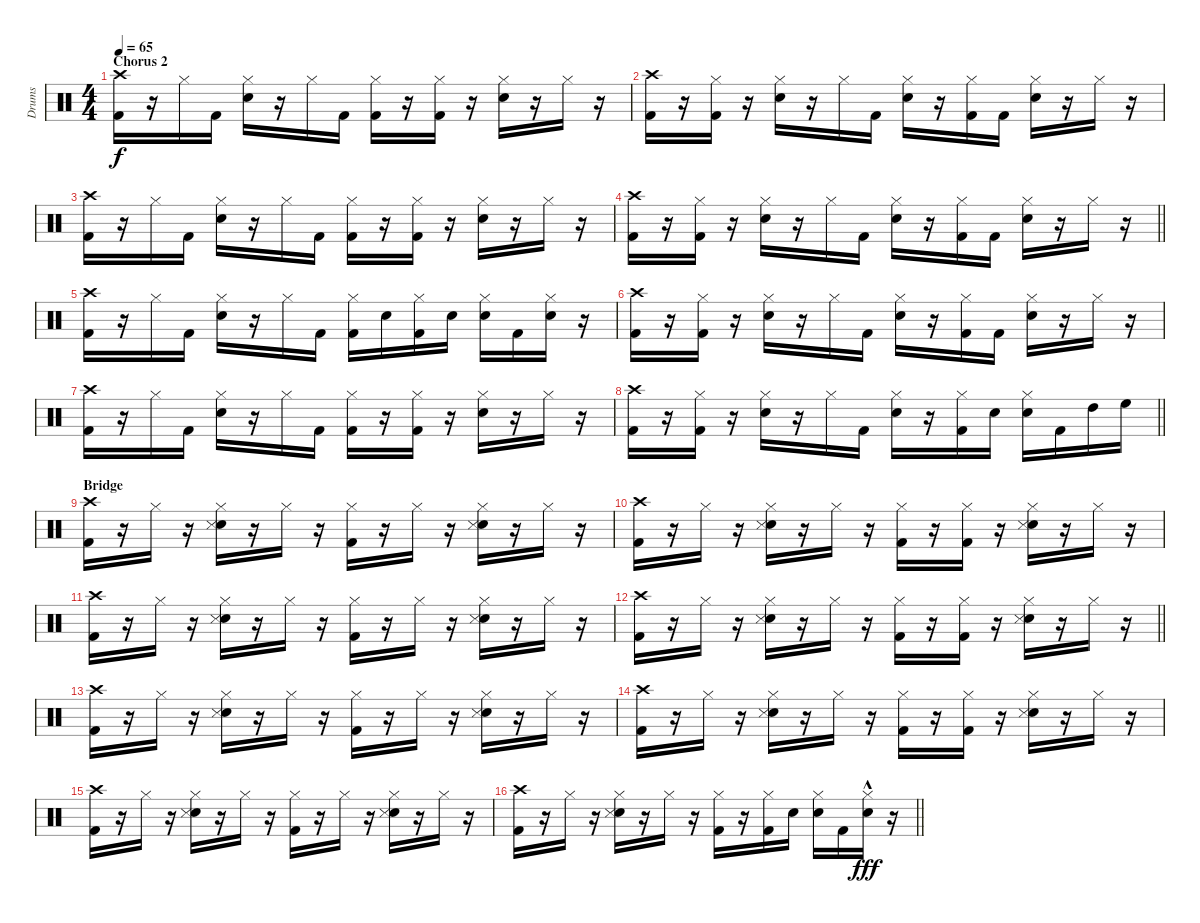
\track ("Drums" "Drums") {instrument percussion}
\staff {score}
\articulation defaults
\ts (4 4)
\section ("" "Chorus 2")
\tempo 65
\clef neutral
\ks c
("Crash high (hit)" "Kick (hit) 2").16{dy f} r.16 "Hi-Hat (closed)".16 "Kick (hit) 2".16 ("Hi-Hat (closed)" "Snare (hit) 2").16 r.16 "Hi-Hat (closed)".16 "Kick (hit) 2".16 ("Hi-Hat (closed)" "Kick (hit) 2").16 r.16 ("Hi-Hat (closed)" "Kick (hit) 2").16 r.16 ("Hi-Hat (closed)" "Snare (hit) 2").16 r.16 "Hi-Hat (closed)".16 r.16 |
("Crash high (hit)" "Kick (hit) 2").16 r.16 ("Hi-Hat (closed)" "Kick (hit) 2").16 r.16 ("Hi-Hat (closed)" "Snare (hit) 2").16 r.16 "Hi-Hat (closed)".16 "Kick (hit) 2".16 ("Hi-Hat (closed)" "Snare (hit) 2").16 r.16 ("Hi-Hat (closed)" "Kick (hit) 2").16 "Kick (hit) 2".16 ("Hi-Hat (closed)" "Snare (hit) 2").16 r.16 "Hi-Hat (closed)".16 r.16 |
("Crash high (hit)" "Kick (hit) 2").16 r.16 "Hi-Hat (closed)".16 "Kick (hit) 2".16 ("Hi-Hat (closed)" "Snare (hit) 2").16 r.16 "Hi-Hat (closed)".16 "Kick (hit) 2".16 ("Hi-Hat (closed)" "Kick (hit) 2").16 r.16 ("Hi-Hat (closed)" "Kick (hit) 2").16 r.16 ("Hi-Hat (closed)" "Snare (hit) 2").16 r.16 "Hi-Hat (closed)".16 r.16 |
\barLineRight lightlight
("Crash high (hit)" "Kick (hit) 2").16 r.16 ("Hi-Hat (closed)" "Kick (hit) 2").16 r.16 ("Hi-Hat (closed)" "Snare (hit) 2").16 r.16 "Hi-Hat (closed)".16 "Kick (hit) 2".16 ("Hi-Hat (closed)" "Snare (hit) 2").16 r.16 ("Hi-Hat (closed)" "Kick (hit) 2").16 "Kick (hit) 2".16 ("Hi-Hat (closed)" "Snare (hit) 2").16 r.16 "Hi-Hat (closed)".16 r.16 |
("Crash high (hit)" "Kick (hit) 2").16 r.16 "Hi-Hat (closed)".16 "Kick (hit) 2".16 ("Hi-Hat (closed)" "Snare (hit) 2").16 r.16 "Hi-Hat (closed)".16 "Kick (hit) 2".16 ("Hi-Hat (closed)" "Kick (hit) 2").16 "Snare (hit) 2".16 ("Hi-Hat (closed)" "Kick (hit) 2").16 "Snare (hit) 2".16 ("Hi-Hat (closed)" "Snare (hit) 2").16 "Kick (hit) 2".16 ("Hi-Hat (closed)" "Snare (hit) 2").16 r.16 |
("Crash high (hit)" "Kick (hit) 2").16 r.16 ("Hi-Hat (closed)" "Kick (hit) 2").16 r.16 ("Hi-Hat (closed)" "Snare (hit) 2").16 r.16 "Hi-Hat (closed)".16 "Kick (hit) 2".16 ("Hi-Hat (closed)" "Snare (hit) 2").16 r.16 ("Hi-Hat (closed)" "Kick (hit) 2").16 "Kick (hit) 2".16 ("Hi-Hat (closed)" "Snare (hit) 2").16 r.16 "Hi-Hat (closed)".16 r.16 |
("Crash high (hit)" "Kick (hit) 2").16 r.16 "Hi-Hat (closed)".16 "Kick (hit) 2".16 ("Hi-Hat (closed)" "Snare (hit) 2").16 r.16 "Hi-Hat (closed)".16 "Kick (hit) 2".16 ("Hi-Hat (closed)" "Kick (hit) 2").16 r.16 ("Hi-Hat (closed)" "Kick (hit) 2").16 r.16 ("Hi-Hat (closed)" "Snare (hit) 2").16 r.16 "Hi-Hat (closed)".16 r.16 |
\barLineRight lightlight
("Crash high (hit)" "Kick (hit) 2").16 r.16 ("Hi-Hat (closed)" "Kick (hit) 2").16 r.16 ("Hi-Hat (closed)" "Snare (hit) 2").16 r.16 "Hi-Hat (closed)".16 "Kick (hit) 2".16 ("Hi-Hat (closed)" "Snare (hit) 2").16 r.16 ("Hi-Hat (closed)" "Kick (hit) 2").16 "Snare (hit) 2".16 ("Hi-Hat (closed)" "Snare (hit) 2").16 "Kick (hit) 2".16 "High Tom (hit)".16 "High Floor Tom (hit)".16 |
\section ("" "Bridge")
("Crash high (hit)" "Kick (hit) 2").16 r.16 "Hi-Hat (closed)".16 r.16 ("Hi-Hat (closed)" "Snare (hit) 2" "Snare (side stick) 3").16 r.16 "Hi-Hat (closed)".16 r.16 ("Hi-Hat (closed)" "Kick (hit) 2").16 r.16 "Hi-Hat (closed)".16 r.16 ("Hi-Hat (closed)" "Snare (hit) 2" "Snare (side stick) 3").16 r.16 "Hi-Hat (closed)".16 r.16 |
("Crash high (hit)" "Kick (hit) 2").16 r.16 "Hi-Hat (closed)".16 r.16 ("Hi-Hat (closed)" "Snare (hit) 2" "Snare (side stick) 3").16 r.16 "Hi-Hat (closed)".16 r.16 ("Hi-Hat (closed)" "Kick (hit) 2").16 r.16 ("Hi-Hat (closed)" "Kick (hit) 2").16 r.16 ("Hi-Hat (closed)" "Snare (hit) 2" "Snare (side stick) 3").16 r.16 "Hi-Hat (closed)".16 r.16 |
("Crash high (hit)" "Kick (hit) 2").16 r.16 "Hi-Hat (closed)".16 r.16 ("Hi-Hat (closed)" "Snare (hit) 2" "Snare (side stick) 3").16 r.16 "Hi-Hat (closed)".16 r.16 ("Hi-Hat (closed)" "Kick (hit) 2").16 r.16 "Hi-Hat (closed)".16 r.16 ("Hi-Hat (closed)" "Snare (hit) 2" "Snare (side stick) 3").16 r.16 "Hi-Hat (closed)".16 r.16 |
\barLineRight lightlight
("Crash high (hit)" "Kick (hit) 2").16 r.16 "Hi-Hat (closed)".16 r.16 ("Hi-Hat (closed)" "Snare (hit) 2" "Snare (side stick) 3").16 r.16 "Hi-Hat (closed)".16 r.16 ("Hi-Hat (closed)" "Kick (hit) 2").16 r.16 ("Hi-Hat (closed)" "Kick (hit) 2").16 r.16 ("Hi-Hat (closed)" "Snare (hit) 2" "Snare (side stick) 3").16 r.16 "Hi-Hat (closed)".16 r.16 |
("Crash high (hit)" "Kick (hit) 2").16 r.16 "Hi-Hat (closed)".16 r.16 ("Hi-Hat (closed)" "Snare (hit) 2" "Snare (side stick) 3").16 r.16 "Hi-Hat (closed)".16 r.16 ("Hi-Hat (closed)" "Kick (hit) 2").16 r.16 "Hi-Hat (closed)".16 r.16 ("Hi-Hat (closed)" "Snare (hit) 2" "Snare (side stick) 3").16 r.16 "Hi-Hat (closed)".16 r.16 |
("Crash high (hit)" "Kick (hit) 2").16 r.16 "Hi-Hat (closed)".16 r.16 ("Hi-Hat (closed)" "Snare (hit) 2" "Snare (side stick) 3").16 r.16 "Hi-Hat (closed)".16 r.16 ("Hi-Hat (closed)" "Kick (hit) 2").16 r.16 ("Hi-Hat (closed)" "Kick (hit) 2").16 r.16 ("Hi-Hat (closed)" "Snare (hit) 2" "Snare (side stick) 3").16 r.16 "Hi-Hat (closed)".16 r.16 |
("Crash high (hit)" "Kick (hit) 2").16 r.16 "Hi-Hat (closed)".16 r.16 ("Hi-Hat (closed)" "Snare (hit) 2" "Snare (side stick) 3").16 r.16 "Hi-Hat (closed)".16 r.16 ("Hi-Hat (closed)" "Kick (hit) 2").16 r.16 "Hi-Hat (closed)".16 r.16 ("Hi-Hat (closed)" "Snare (hit) 2" "Snare (side stick) 3").16 r.16 "Hi-Hat (closed)".16 r.16 |
\barLineRight lightlight
("Crash high (hit)" "Kick (hit) 2").16 r.16 "Hi-Hat (closed)".16 r.16 ("Hi-Hat (closed)" "Snare (hit) 2" "Snare (side stick) 3").16 r.16 "Hi-Hat (closed)".16 r.16 ("Hi-Hat (closed)" "Kick (hit) 2").16 r.16 ("Hi-Hat (closed)" "Kick (hit) 2").16 "Snare (hit) 2".16 ("Hi-Hat (closed)" "Snare (hit) 2").16 "Kick (hit) 2".16 ("Hi-Hat (closed)" "Snare (hit) 2"{hac}).16{dy fff} r.16
